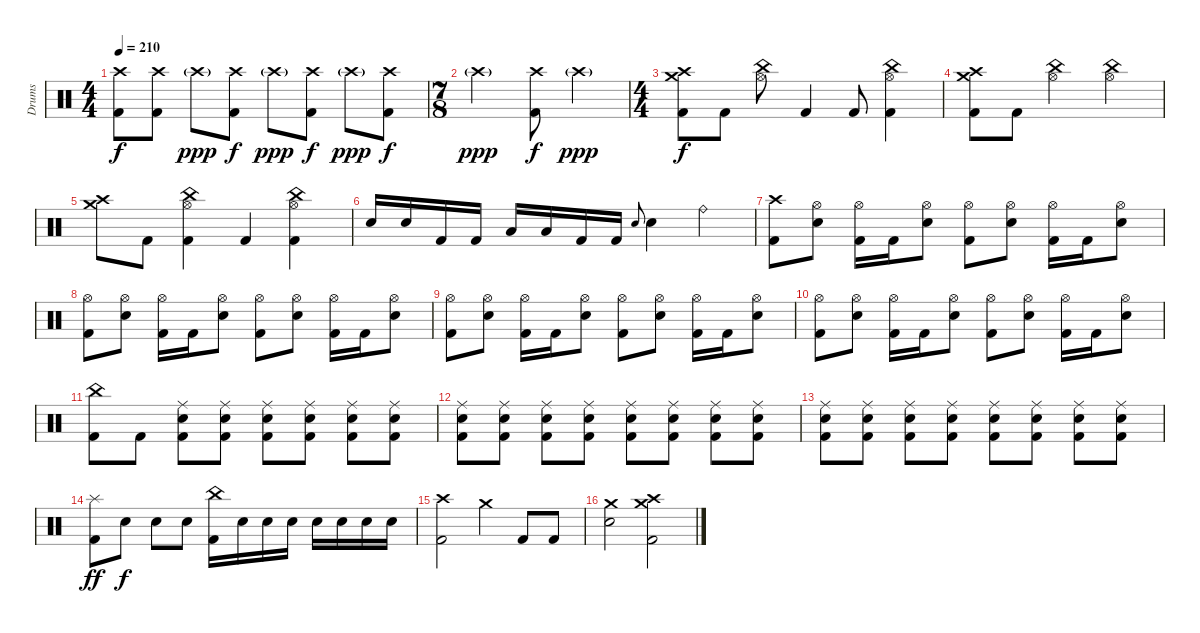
\track ("Drums" "Drums") {instrument percussion}
\staff {score}
\articulation defaults
\ts (4 4)
\tempo 210
\clef neutral
\ks c
("Crash high (hit)" "Kick (hit) 2").8{dy f} ("Crash high (hit)" "Kick (hit) 2").8 "Crash high (hit)"{g}.8{dy ppp} ("Crash high (hit)" "Kick (hit) 2").8{dy f} "Crash high (hit)"{g}.8{dy ppp} ("Crash high (hit)" "Kick (hit) 2").8{dy f} "Crash high (hit)"{g}.8{dy ppp} ("Crash high (hit)" "Kick (hit) 2").8{dy f} |
\ts (7 8)
"Crash high (hit)"{g}.2{dy ppp} ("Crash high (hit)" "Kick (hit) 2").8{dy f} "Crash high (hit)"{g}.4{dy ppp} |
\ts (4 4)
("Crash high (hit)" "Crash medium (hit)" "Kick (hit) 2").8{dy f} "Kick (hit) 2".8 ("China (hit)" "Hi-Hat (open)").8 "Kick (hit) 2".4 "Kick (hit) 2".8 ("China (hit)" "Hi-Hat (open)" "Kick (hit) 2").4 |
("Crash high (hit)" "Crash medium (hit)" "Kick (hit) 2").8 "Kick (hit) 2".8 ("China (hit)" "Hi-Hat (open)").2 ("China (hit)" "Hi-Hat (open)").4 |
("Crash high (hit)" "Crash medium (hit)").8 "Kick (hit) 2".8 ("China (hit)" "Hi-Hat (open)" "Kick (hit) 2").4 "Kick (hit) 2".4 ("China (hit)" "Hi-Hat (open)" "Kick (hit) 2").4 |
"Electric Snare (hit)".16 "Electric Snare (hit)".16 "Kick (hit) 2".16 "Kick (hit) 2".16 "Low Tom (hit)".16 "Low Tom (hit)".16 "Kick (hit) 2".16 "Kick (hit) 2".16 "Electric Snare (hit)".8{gr onbeat} "Electric Snare (hit)".4 "Ride (bell)".4 |
("Crash high (hit)" "Kick (hit) 2").8 ("Hi-Hat (open)" "Electric Snare (hit)").8 ("Hi-Hat (open)" "Kick (hit) 2").16 "Kick (hit) 2".16 ("Hi-Hat (open)" "Electric Snare (hit)").8 ("Hi-Hat (open)" "Kick (hit) 2").8 ("Hi-Hat (open)" "Electric Snare (hit)").8 ("Hi-Hat (open)" "Kick (hit) 2").16 "Kick (hit) 2".16 ("Hi-Hat (open)" "Electric Snare (hit)").8 |
("Hi-Hat (open)" "Kick (hit) 2").8 ("Hi-Hat (open)" "Electric Snare (hit)").8 ("Hi-Hat (open)" "Kick (hit) 2").16 "Kick (hit) 2".16 ("Hi-Hat (open)" "Electric Snare (hit)").8 ("Hi-Hat (open)" "Kick (hit) 2").8 ("Hi-Hat (open)" "Electric Snare (hit)").8 ("Hi-Hat (open)" "Kick (hit) 2").16 "Kick (hit) 2".16 ("Hi-Hat (open)" "Electric Snare (hit)").8 |
("Hi-Hat (open)" "Kick (hit) 2").8 ("Hi-Hat (open)" "Electric Snare (hit)").8 ("Hi-Hat (open)" "Kick (hit) 2").16 "Kick (hit) 2".16 ("Hi-Hat (open)" "Electric Snare (hit)").8 ("Hi-Hat (open)" "Kick (hit) 2").8 ("Hi-Hat (open)" "Electric Snare (hit)").8 ("Hi-Hat (open)" "Kick (hit) 2").16 "Kick (hit) 2".16 ("Hi-Hat (open)" "Electric Snare (hit)").8 |
("Hi-Hat (open)" "Kick (hit) 2").8 ("Hi-Hat (open)" "Electric Snare (hit)").8 ("Hi-Hat (open)" "Kick (hit) 2").16 "Kick (hit) 2".16 ("Hi-Hat (open)" "Electric Snare (hit)").8 ("Hi-Hat (open)" "Kick (hit) 2").8 ("Hi-Hat (open)" "Electric Snare (hit)").8 ("Hi-Hat (open)" "Kick (hit) 2").16 "Kick (hit) 2".16 ("Hi-Hat (open)" "Electric Snare (hit)").8 |
("China (hit)" "Kick (hit) 2").8 "Kick (hit) 2".8 ("Ride (middle)" "Kick (hit) 2" "Electric Snare (hit)").8 ("Ride (middle)" "Kick (hit) 2" "Electric Snare (hit)").8 ("Ride (middle)" "Kick (hit) 2" "Electric Snare (hit)").8 ("Ride (middle)" "Kick (hit) 2" "Electric Snare (hit)").8 ("Ride (middle)" "Kick (hit) 2" "Electric Snare (hit)").8 ("Ride (middle)" "Kick (hit) 2" "Electric Snare (hit)").8 |
("Ride (middle)" "Kick (hit) 2" "Electric Snare (hit)").8 ("Ride (middle)" "Kick (hit) 2" "Electric Snare (hit)").8 ("Ride (middle)" "Kick (hit) 2" "Electric Snare (hit)").8 ("Ride (middle)" "Kick (hit) 2" "Electric Snare (hit)").8 ("Ride (middle)" "Kick (hit) 2" "Electric Snare (hit)").8 ("Ride (middle)" "Kick (hit) 2" "Electric Snare (hit)").8 ("Ride (middle)" "Kick (hit) 2" "Electric Snare (hit)").8 ("Ride (middle)" "Kick (hit) 2" "Electric Snare (hit)").8 |
("Ride (middle)" "Kick (hit) 2" "Electric Snare (hit)").8 ("Ride (middle)" "Kick (hit) 2" "Electric Snare (hit)").8 ("Ride (middle)" "Kick (hit) 2" "Electric Snare (hit)").8 ("Ride (middle)" "Kick (hit) 2" "Electric Snare (hit)").8 ("Ride (middle)" "Kick (hit) 2" "Electric Snare (hit)").8 ("Ride (middle)" "Kick (hit) 2" "Electric Snare (hit)").8 ("Ride (middle)" "Kick (hit) 2" "Electric Snare (hit)").8 ("Ride (middle)" "Kick (hit) 2" "Electric Snare (hit)").8 |
("Splash (hit)" "Kick (hit) 2").8{dy ff} "Electric Snare (hit)".8{dy f} "Electric Snare (hit)".8 "Electric Snare (hit)".8 ("China (hit)" "Kick (hit) 2").16 "Electric Snare (hit)".16 "Electric Snare (hit)".16 "Electric Snare (hit)".16 "Electric Snare (hit)".16 "Electric Snare (hit)".16 "Electric Snare (hit)".16 "Electric Snare (hit)".16 |
("Crash high (hit)" "Kick (hit) 2").2 "Crash medium (hit)".4 "Kick (hit) 2".8 "Kick (hit) 2".8 |
("Crash medium (hit)" "Electric Snare (hit)").2 ("Crash medium (hit)" "Crash high (hit)" "Kick (hit) 2").2
